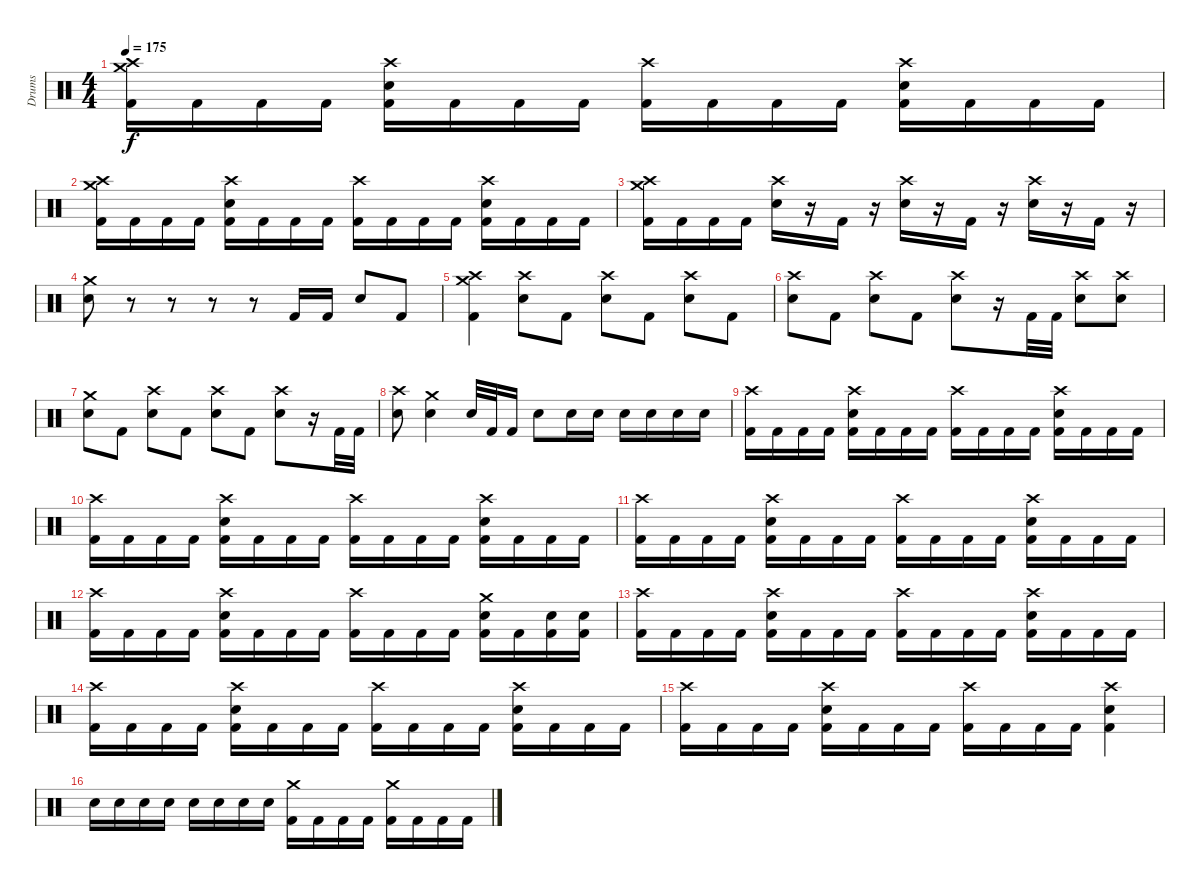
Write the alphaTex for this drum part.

\track ("Drums" "Drums") {instrument percussion}
\staff {score}
\articulation defaults
\ts (4 4)
\tempo 175
\clef neutral
\ks c
("Crash medium (hit)" "Crash high (hit)" "Kick (hit) 2").16{dy f} "Kick (hit) 2".16 "Kick (hit) 2".16 "Kick (hit) 2".16 ("Crash high (hit)" "Snare (hit) 2" "Kick (hit) 2").16 "Kick (hit) 2".16 "Kick (hit) 2".16 "Kick (hit) 2".16 ("Crash high (hit)" "Kick (hit) 2").16 "Kick (hit) 2".16 "Kick (hit) 2".16 "Kick (hit) 2".16 ("Crash high (hit)" "Snare (hit) 2" "Kick (hit) 2").16 "Kick (hit) 2".16 "Kick (hit) 2".16 "Kick (hit) 2".16 |
("Crash medium (hit)" "Crash high (hit)" "Kick (hit) 2").16 "Kick (hit) 2".16 "Kick (hit) 2".16 "Kick (hit) 2".16 ("Crash high (hit)" "Snare (hit) 2" "Kick (hit) 2").16 "Kick (hit) 2".16 "Kick (hit) 2".16 "Kick (hit) 2".16 ("Crash high (hit)" "Kick (hit) 2").16 "Kick (hit) 2".16 "Kick (hit) 2".16 "Kick (hit) 2".16 ("Crash high (hit)" "Snare (hit) 2" "Kick (hit) 2").16 "Kick (hit) 2".16 "Kick (hit) 2".16 "Kick (hit) 2".16 |
("Crash medium (hit)" "Crash high (hit)" "Kick (hit) 2").16 "Kick (hit) 2".16 "Kick (hit) 2".16 "Kick (hit) 2".16 ("Crash high (hit)" "Snare (hit) 2").16 r.16 "Kick (hit) 2".16 r.16 ("Crash high (hit)" "Snare (hit) 2").16 r.16 "Kick (hit) 2".16 r.16 ("Crash high (hit)" "Snare (hit) 2").16 r.16 "Kick (hit) 2".16 r.16 |
("Crash medium (hit)" "Snare (hit) 2").8 r.8 r.8 r.8 r.8 "Kick (hit) 2".16 "Kick (hit) 2".16 "Snare (hit) 2".8 "Kick (hit) 2".8 |
("Crash medium (hit)" "Crash high (hit)" "Kick (hit) 2").4 ("Crash high (hit)" "Snare (hit) 2").8 "Kick (hit) 2".8 ("Crash high (hit)" "Snare (hit) 2").8 "Kick (hit) 2".8 ("Crash high (hit)" "Snare (hit) 2").8 "Kick (hit) 2".8 |
("Crash high (hit)" "Snare (hit) 2").8 "Kick (hit) 2".8 ("Crash high (hit)" "Snare (hit) 2").8 "Kick (hit) 2".8 ("Crash high (hit)" "Snare (hit) 2").8 r.16 "Kick (hit) 2".32 "Kick (hit) 2".32 ("Crash high (hit)" "Snare (hit) 2").8 ("Crash high (hit)" "Snare (hit) 2").8 |
("Crash medium (hit)" "Snare (hit) 2").8 "Kick (hit) 2".8 ("Crash high (hit)" "Snare (hit) 2").8 "Kick (hit) 2".8 ("Crash high (hit)" "Snare (hit) 2").8 "Kick (hit) 2".8 ("Crash high (hit)" "Snare (hit) 2").8 r.16 "Kick (hit) 2".32 "Kick (hit) 2".32 |
("Crash high (hit)" "Snare (hit) 2").8 ("Crash medium (hit)" "Snare (hit) 2").4 "Snare (hit) 2".32 "Kick (hit) 2".32 "Kick (hit) 2".16 "Snare (hit) 2".8 "Snare (hit) 2".16 "Snare (hit) 2".16 "Snare (hit) 2".16 "Snare (hit) 2".16 "Snare (hit) 2".16 "Snare (hit) 2".16 |
("Crash high (hit)" "Kick (hit) 2").16 "Kick (hit) 2".16 "Kick (hit) 2".16 "Kick (hit) 2".16 ("Crash high (hit)" "Snare (hit) 2" "Kick (hit) 2").16 "Kick (hit) 2".16 "Kick (hit) 2".16 "Kick (hit) 2".16 ("Crash high (hit)" "Kick (hit) 2").16 "Kick (hit) 2".16 "Kick (hit) 2".16 "Kick (hit) 2".16 ("Crash high (hit)" "Snare (hit) 2" "Kick (hit) 2").16 "Kick (hit) 2".16 "Kick (hit) 2".16 "Kick (hit) 2".16 |
("Crash high (hit)" "Kick (hit) 2").16 "Kick (hit) 2".16 "Kick (hit) 2".16 "Kick (hit) 2".16 ("Crash high (hit)" "Snare (hit) 2" "Kick (hit) 2").16 "Kick (hit) 2".16 "Kick (hit) 2".16 "Kick (hit) 2".16 ("Crash high (hit)" "Kick (hit) 2").16 "Kick (hit) 2".16 "Kick (hit) 2".16 "Kick (hit) 2".16 ("Crash high (hit)" "Snare (hit) 2" "Kick (hit) 2").16 "Kick (hit) 2".16 "Kick (hit) 2".16 "Kick (hit) 2".16 |
("Crash high (hit)" "Kick (hit) 2").16 "Kick (hit) 2".16 "Kick (hit) 2".16 "Kick (hit) 2".16 ("Crash high (hit)" "Snare (hit) 2" "Kick (hit) 2").16 "Kick (hit) 2".16 "Kick (hit) 2".16 "Kick (hit) 2".16 ("Crash high (hit)" "Kick (hit) 2").16 "Kick (hit) 2".16 "Kick (hit) 2".16 "Kick (hit) 2".16 ("Crash high (hit)" "Snare (hit) 2" "Kick (hit) 2").16 "Kick (hit) 2".16 "Kick (hit) 2".16 "Kick (hit) 2".16 |
("Crash high (hit)" "Kick (hit) 2").16 "Kick (hit) 2".16 "Kick (hit) 2".16 "Kick (hit) 2".16 ("Crash high (hit)" "Snare (hit) 2" "Kick (hit) 2").16 "Kick (hit) 2".16 "Kick (hit) 2".16 "Kick (hit) 2".16 ("Crash high (hit)" "Kick (hit) 2").16 "Kick (hit) 2".16 "Kick (hit) 2".16 "Kick (hit) 2".16 ("Crash medium (hit)" "Snare (hit) 2" "Kick (hit) 2").16 "Kick (hit) 2".16 ("Snare (hit) 2" "Kick (hit) 2").16 ("Snare (hit) 2" "Kick (hit) 2").16 |
("Crash high (hit)" "Kick (hit) 2").16 "Kick (hit) 2".16 "Kick (hit) 2".16 "Kick (hit) 2".16 ("Crash high (hit)" "Snare (hit) 2" "Kick (hit) 2").16 "Kick (hit) 2".16 "Kick (hit) 2".16 "Kick (hit) 2".16 ("Crash high (hit)" "Kick (hit) 2").16 "Kick (hit) 2".16 "Kick (hit) 2".16 "Kick (hit) 2".16 ("Crash high (hit)" "Snare (hit) 2" "Kick (hit) 2").16 "Kick (hit) 2".16 "Kick (hit) 2".16 "Kick (hit) 2".16 |
("Crash high (hit)" "Kick (hit) 2").16 "Kick (hit) 2".16 "Kick (hit) 2".16 "Kick (hit) 2".16 ("Crash high (hit)" "Snare (hit) 2" "Kick (hit) 2").16 "Kick (hit) 2".16 "Kick (hit) 2".16 "Kick (hit) 2".16 ("Crash high (hit)" "Kick (hit) 2").16 "Kick (hit) 2".16 "Kick (hit) 2".16 "Kick (hit) 2".16 ("Crash high (hit)" "Snare (hit) 2" "Kick (hit) 2").16 "Kick (hit) 2".16 "Kick (hit) 2".16 "Kick (hit) 2".16 |
("Crash high (hit)" "Kick (hit) 2").16 "Kick (hit) 2".16 "Kick (hit) 2".16 "Kick (hit) 2".16 ("Crash high (hit)" "Snare (hit) 2" "Kick (hit) 2").16 "Kick (hit) 2".16 "Kick (hit) 2".16 "Kick (hit) 2".16 ("Crash high (hit)" "Kick (hit) 2").16 "Kick (hit) 2".16 "Kick (hit) 2".16 "Kick (hit) 2".16 ("Crash high (hit)" "Snare (hit) 2" "Kick (hit) 2").4 |
"Snare (hit) 2".16 "Snare (hit) 2".16 "Snare (hit) 2".16 "Snare (hit) 2".16 "Snare (hit) 2".16 "Snare (hit) 2".16 "Snare (hit) 2".16 "Snare (hit) 2".16 ("Crash medium (hit)" "Kick (hit) 2").16 "Kick (hit) 2".16 "Kick (hit) 2".16 "Kick (hit) 2".16 ("Crash medium (hit)" "Kick (hit) 2").16 "Kick (hit) 2".16 "Kick (hit) 2".16 "Kick (hit) 2".16
